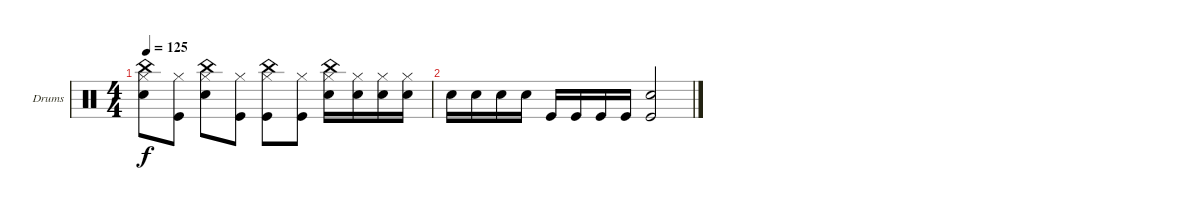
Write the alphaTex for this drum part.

\defaultSystemsLayout 4
\bracketExtendMode groupsimilarinstruments
\firstSystemTrackNameOrientation horizontal
\otherSystemsTrackNameOrientation horizontal
\track ("Drumkit" "Drums") {instrument percussion}
\staff {score}
\articulation defaults
\ts (4 4)
\tempo 125
\clef neutral
\ks c
("Snare (hit) 2" "Hi-Hat (closed)" "China (hit)").8{dy f} ("Kick (hit)" "Hi-Hat (closed)").8 ("Snare (hit) 2" "Hi-Hat (closed)" "China (hit)").8 ("Kick (hit)" "Hi-Hat (closed)").8 ("Hi-Hat (closed)" "China (hit)" "Kick (hit)").8 ("Kick (hit)" "Hi-Hat (closed)").8 ("Snare (hit) 2" "Hi-Hat (closed)" "China (hit)").16 ("Hi-Hat (closed)" "Snare (hit) 2").16 ("Snare (hit) 2" "Hi-Hat (closed)").16 ("Snare (hit) 2" "Hi-Hat (closed)").16 |
"Snare (hit) 2".16 "Snare (hit) 2".16 "Snare (hit) 2".16 "Snare (hit) 2".16 "Kick (hit)".16 "Kick (hit)".16 "Kick (hit)".16 "Kick (hit)".16 ("Kick (hit)" "Snare (hit) 2").2
